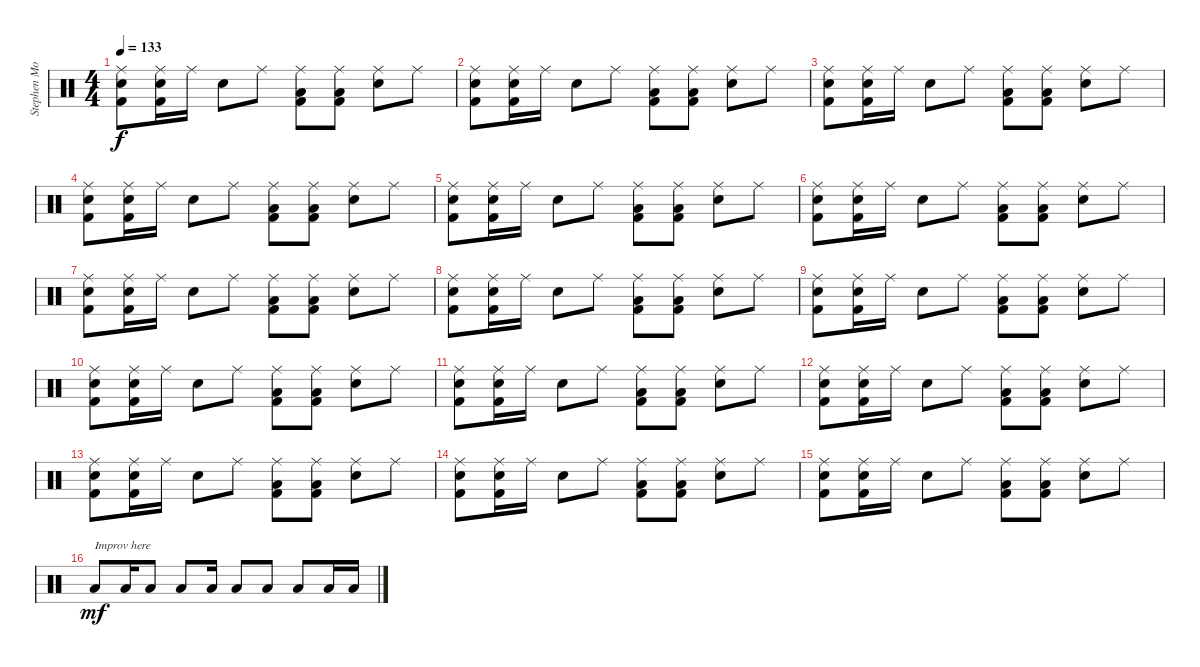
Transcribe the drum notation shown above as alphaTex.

\track ("Stephen Morris - Drums" "Stephen Mo") {instrument percussion}
\staff {score}
\articulation defaults
\ts (4 4)
\tempo 133
\clef neutral
\ks c
("Ride (middle)" "Electric Snare (hit)" "Kick (hit) 2").8{dy f} ("Ride (middle)" "Electric Snare (hit)" "Kick (hit) 2").16 "Ride (middle)".16 "Electric Snare (hit)".8 "Ride (middle)".8 ("Ride (middle)" "Low Tom (hit)" "Kick (hit) 2").8 ("Ride (middle)" "Low Tom (hit)" "Kick (hit) 2").8 ("Ride (middle)" "Electric Snare (hit)").8 "Ride (middle)".8 |
("Ride (middle)" "Electric Snare (hit)" "Kick (hit) 2").8 ("Ride (middle)" "Electric Snare (hit)" "Kick (hit) 2").16 "Ride (middle)".16 "Electric Snare (hit)".8 "Ride (middle)".8 ("Ride (middle)" "Low Tom (hit)" "Kick (hit) 2").8 ("Ride (middle)" "Low Tom (hit)" "Kick (hit) 2").8 ("Ride (middle)" "Electric Snare (hit)").8 "Ride (middle)".8 |
("Ride (middle)" "Electric Snare (hit)" "Kick (hit) 2").8 ("Ride (middle)" "Electric Snare (hit)" "Kick (hit) 2").16 "Ride (middle)".16 "Electric Snare (hit)".8 "Ride (middle)".8 ("Ride (middle)" "Low Tom (hit)" "Kick (hit) 2").8 ("Ride (middle)" "Low Tom (hit)" "Kick (hit) 2").8 ("Ride (middle)" "Electric Snare (hit)").8 "Ride (middle)".8 |
("Ride (middle)" "Electric Snare (hit)" "Kick (hit) 2").8 ("Ride (middle)" "Electric Snare (hit)" "Kick (hit) 2").16 "Ride (middle)".16 "Electric Snare (hit)".8 "Ride (middle)".8 ("Ride (middle)" "Low Tom (hit)" "Kick (hit) 2").8 ("Ride (middle)" "Low Tom (hit)" "Kick (hit) 2").8 ("Ride (middle)" "Electric Snare (hit)").8 "Ride (middle)".8 |
("Ride (middle)" "Electric Snare (hit)" "Kick (hit) 2").8 ("Ride (middle)" "Electric Snare (hit)" "Kick (hit) 2").16 "Ride (middle)".16 "Electric Snare (hit)".8 "Ride (middle)".8 ("Ride (middle)" "Low Tom (hit)" "Kick (hit) 2").8 ("Ride (middle)" "Low Tom (hit)" "Kick (hit) 2").8 ("Ride (middle)" "Electric Snare (hit)").8 "Ride (middle)".8 |
("Ride (middle)" "Electric Snare (hit)" "Kick (hit) 2").8 ("Ride (middle)" "Electric Snare (hit)" "Kick (hit) 2").16 "Ride (middle)".16 "Electric Snare (hit)".8 "Ride (middle)".8 ("Ride (middle)" "Low Tom (hit)" "Kick (hit) 2").8 ("Ride (middle)" "Low Tom (hit)" "Kick (hit) 2").8 ("Ride (middle)" "Electric Snare (hit)").8 "Ride (middle)".8 |
("Ride (middle)" "Electric Snare (hit)" "Kick (hit) 2").8 ("Ride (middle)" "Electric Snare (hit)" "Kick (hit) 2").16 "Ride (middle)".16 "Electric Snare (hit)".8 "Ride (middle)".8 ("Ride (middle)" "Low Tom (hit)" "Kick (hit) 2").8 ("Ride (middle)" "Low Tom (hit)" "Kick (hit) 2").8 ("Ride (middle)" "Electric Snare (hit)").8 "Ride (middle)".8 |
("Ride (middle)" "Electric Snare (hit)" "Kick (hit) 2").8 ("Ride (middle)" "Electric Snare (hit)" "Kick (hit) 2").16 "Ride (middle)".16 "Electric Snare (hit)".8 "Ride (middle)".8 ("Ride (middle)" "Low Tom (hit)" "Kick (hit) 2").8 ("Ride (middle)" "Low Tom (hit)" "Kick (hit) 2").8 ("Ride (middle)" "Electric Snare (hit)").8 "Ride (middle)".8 |
("Ride (middle)" "Electric Snare (hit)" "Kick (hit) 2").8 ("Ride (middle)" "Electric Snare (hit)" "Kick (hit) 2").16 "Ride (middle)".16 "Electric Snare (hit)".8 "Ride (middle)".8 ("Ride (middle)" "Low Tom (hit)" "Kick (hit) 2").8 ("Ride (middle)" "Low Tom (hit)" "Kick (hit) 2").8 ("Ride (middle)" "Electric Snare (hit)").8 "Ride (middle)".8 |
("Ride (middle)" "Electric Snare (hit)" "Kick (hit) 2").8 ("Ride (middle)" "Electric Snare (hit)" "Kick (hit) 2").16 "Ride (middle)".16 "Electric Snare (hit)".8 "Ride (middle)".8 ("Ride (middle)" "Low Tom (hit)" "Kick (hit) 2").8 ("Ride (middle)" "Low Tom (hit)" "Kick (hit) 2").8 ("Ride (middle)" "Electric Snare (hit)").8 "Ride (middle)".8 |
("Ride (middle)" "Electric Snare (hit)" "Kick (hit) 2").8 ("Ride (middle)" "Electric Snare (hit)" "Kick (hit) 2").16 "Ride (middle)".16 "Electric Snare (hit)".8 "Ride (middle)".8 ("Ride (middle)" "Low Tom (hit)" "Kick (hit) 2").8 ("Ride (middle)" "Low Tom (hit)" "Kick (hit) 2").8 ("Ride (middle)" "Electric Snare (hit)").8 "Ride (middle)".8 |
("Ride (middle)" "Electric Snare (hit)" "Kick (hit) 2").8 ("Ride (middle)" "Electric Snare (hit)" "Kick (hit) 2").16 "Ride (middle)".16 "Electric Snare (hit)".8 "Ride (middle)".8 ("Ride (middle)" "Low Tom (hit)" "Kick (hit) 2").8 ("Ride (middle)" "Low Tom (hit)" "Kick (hit) 2").8 ("Ride (middle)" "Electric Snare (hit)").8 "Ride (middle)".8 |
("Ride (middle)" "Electric Snare (hit)" "Kick (hit) 2").8 ("Ride (middle)" "Electric Snare (hit)" "Kick (hit) 2").16 "Ride (middle)".16 "Electric Snare (hit)".8 "Ride (middle)".8 ("Ride (middle)" "Low Tom (hit)" "Kick (hit) 2").8 ("Ride (middle)" "Low Tom (hit)" "Kick (hit) 2").8 ("Ride (middle)" "Electric Snare (hit)").8 "Ride (middle)".8 |
("Ride (middle)" "Electric Snare (hit)" "Kick (hit) 2").8 ("Ride (middle)" "Electric Snare (hit)" "Kick (hit) 2").16 "Ride (middle)".16 "Electric Snare (hit)".8 "Ride (middle)".8 ("Ride (middle)" "Low Tom (hit)" "Kick (hit) 2").8 ("Ride (middle)" "Low Tom (hit)" "Kick (hit) 2").8 ("Ride (middle)" "Electric Snare (hit)").8 "Ride (middle)".8 |
("Ride (middle)" "Electric Snare (hit)" "Kick (hit) 2").8 ("Ride (middle)" "Electric Snare (hit)" "Kick (hit) 2").16 "Ride (middle)".16 "Electric Snare (hit)".8 "Ride (middle)".8 ("Ride (middle)" "Low Tom (hit)" "Kick (hit) 2").8 ("Ride (middle)" "Low Tom (hit)" "Kick (hit) 2").8 ("Ride (middle)" "Electric Snare (hit)").8 "Ride (middle)".8 |
"Low Tom (hit)".8{txt "Improv here" dy mf} "Low Tom (hit)".16 "Low Tom (hit)".8 "Low Tom (hit)".8 "Low Tom (hit)".16 "Low Tom (hit)".8 "Low Tom (hit)".8 "Low Tom (hit)".8 "Low Tom (hit)".16 "Low Tom (hit)".16
